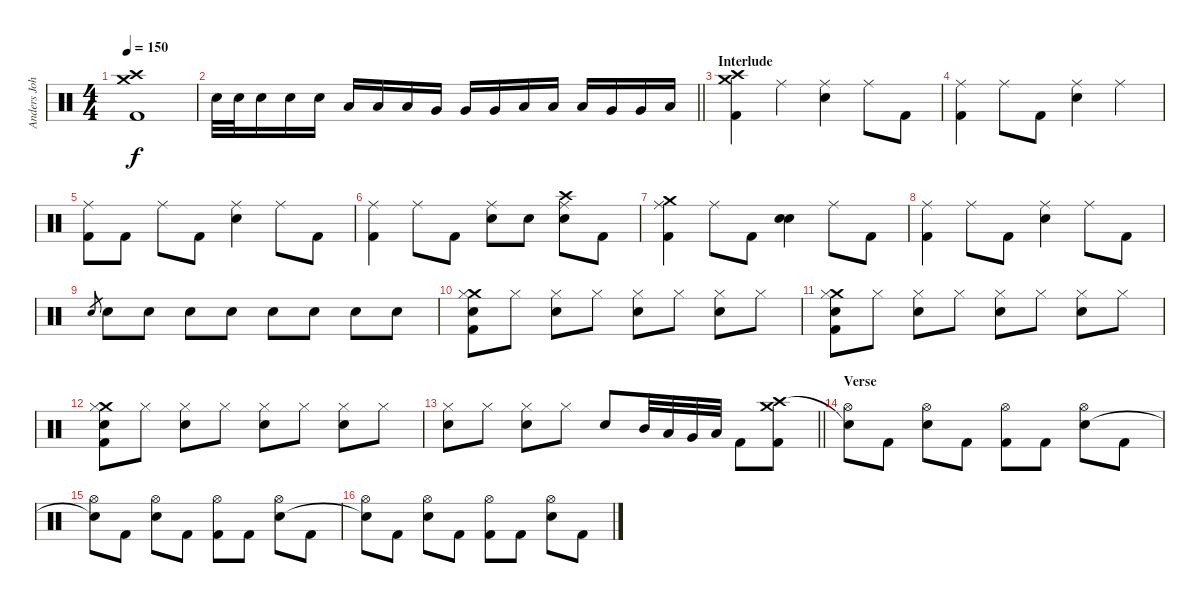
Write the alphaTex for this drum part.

\track ("Anders Johansson" "Anders Joh") {instrument percussion}
\staff {score}
\articulation defaults
\ts (4 4)
\tempo 150
\clef neutral
\ks c
("Crash medium (hit)" "Crash high (hit)" "Kick (hit) 2").1{dy f} |
\barLineRight lightlight "Snare (hit) 2".32 "Snare (hit) 2".32 "Snare (hit) 2".16 "Snare (hit) 2".16 "Snare (hit) 2".16 "Low Tom (hit)".16 "Low Tom (hit)".16 "Low Tom (hit)".16 "Very Low Tom (hit)".16 "Very Low Tom (hit)".16 "Very Low Tom (hit)".16 "Low Floor Tom (hit)".16 "Low Floor Tom (hit)".16 "Low Floor Tom (hit)".16 "Very Low Tom (hit)".16 "Very Low Tom (hit)".16 "Low Floor Tom (hit)".16
|
\section ("" "Interlude")
("Crash medium (hit)" "Crash high (hit)" "Kick (hit) 2").4 "Ride (middle)".4 ("Ride (middle)" "Snare (hit) 2").4 "Ride (middle)".8 "Kick (hit) 2".8 |
("Ride (middle)" "Kick (hit) 2").4 "Ride (middle)".8 "Kick (hit) 2".8 ("Ride (middle)" "Snare (hit) 2").4 "Ride (middle)".4 |
("Ride (middle)" "Kick (hit) 2").8 "Kick (hit) 2".8 "Ride (middle)".8 "Kick (hit) 2".8 ("Ride (middle)" "Snare (hit) 2").4 "Ride (middle)".8 "Kick (hit) 2".8 |
("Ride (middle)" "Kick (hit) 2").4 "Ride (middle)".8 "Kick (hit) 2".8 ("Ride (middle)" "Snare (hit) 2").8 "Snare (hit) 2".8 ("Crash high (hit)" "Ride (middle)" "Snare (hit) 2").8 "Kick (hit) 2".8 |
("Crash medium (hit)" "Ride (middle)" "Kick (hit) 2").4 "Ride (middle)".8 "Kick (hit) 2".8 ("Snare (hit)" "Snare (hit) 2").4 "Ride (middle)".8 "Kick (hit) 2".8 |
("Ride (middle)" "Kick (hit) 2").4 "Ride (middle)".8 "Kick (hit) 2".8 ("Ride (middle)" "Snare (hit) 2").4 "Ride (middle)".8 "Kick (hit) 2".8 |
"Snare (hit) 2".8{gr} "Snare (hit) 2".8 "Snare (hit) 2".8 "Snare (hit) 2".8 "Snare (hit) 2".8 "Snare (hit) 2".8 "Snare (hit) 2".8 "Snare (hit) 2".8 "Snare (hit) 2".8 |
("Crash medium (hit)" "Hi-Hat (closed)" "Snare (hit) 2" "Kick (hit) 2").8 "Hi-Hat (closed)".8 ("Hi-Hat (closed)" "Snare (hit) 2").8 "Hi-Hat (closed)".8 ("Hi-Hat (closed)" "Snare (hit) 2").8 "Hi-Hat (closed)".8 ("Hi-Hat (closed)" "Snare (hit) 2").8 "Hi-Hat (closed)".8 |
("Crash medium (hit)" "Hi-Hat (closed)" "Snare (hit) 2" "Kick (hit) 2").8 "Hi-Hat (closed)".8 ("Hi-Hat (closed)" "Snare (hit) 2").8 "Hi-Hat (closed)".8 ("Hi-Hat (closed)" "Snare (hit) 2").8 "Hi-Hat (closed)".8 ("Hi-Hat (closed)" "Snare (hit) 2").8 "Hi-Hat (closed)".8 |
("Crash medium (hit)" "Hi-Hat (closed)" "Snare (hit) 2" "Kick (hit) 2").8 "Hi-Hat (closed)".8 ("Hi-Hat (closed)" "Snare (hit) 2").8 "Hi-Hat (closed)".8 ("Hi-Hat (closed)" "Snare (hit) 2").8 "Hi-Hat (closed)".8 ("Hi-Hat (closed)" "Snare (hit) 2").8 "Hi-Hat (closed)".8 |
\barLineRight lightlight
("Hi-Hat (closed)" "Snare (hit) 2").8 "Hi-Hat (closed)".8 ("Hi-Hat (closed)" "Snare (hit) 2").8 "Hi-Hat (closed)".8 "Snare (hit) 2".8 "Mid Tom (hit)".32 "Low Tom (hit)".32 "Very Low Tom (hit)".32 "Low Floor Tom (hit)".32 "Kick (hit) 2".8 ("Crash medium (hit)" "Crash high (hit)" "Kick (hit) 2").8 |
\section ("" "Verse")
("Hi-Hat (open)" "Snare (hit)"{t}).8 "Kick (hit) 2".8 ("Hi-Hat (open)" "Electric Snare (hit)").8 "Kick (hit) 2".8 ("Hi-Hat (open)" "Kick (hit) 2").8 "Kick (hit) 2".8 ("Hi-Hat (open)" "Electric Snare (hit)").8 "Kick (hit) 2".8 |
("Hi-Hat (open)" "Snare (hit)"{t}).8 "Kick (hit) 2".8 ("Hi-Hat (open)" "Electric Snare (hit)").8 "Kick (hit) 2".8 ("Hi-Hat (open)" "Kick (hit) 2").8 "Kick (hit) 2".8 ("Hi-Hat (open)" "Electric Snare (hit)").8 "Kick (hit) 2".8 |
("Hi-Hat (open)" "Snare (hit)"{t}).8 "Kick (hit) 2".8 ("Hi-Hat (open)" "Electric Snare (hit)").8 "Kick (hit) 2".8 ("Hi-Hat (open)" "Kick (hit) 2").8 "Kick (hit) 2".8 ("Hi-Hat (open)" "Electric Snare (hit)").8 "Kick (hit) 2".8
